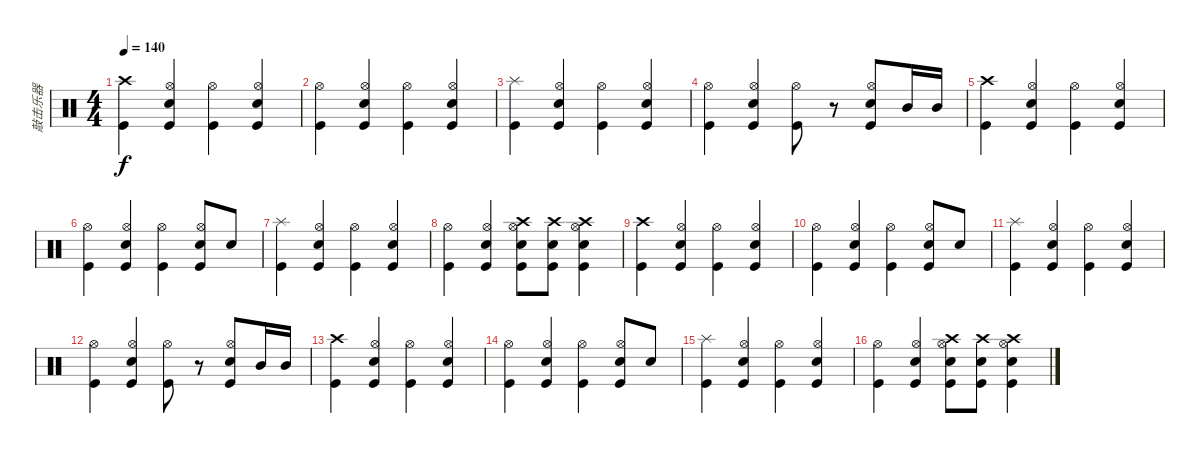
\track ("敲击乐器" "敲击乐器") {instrument percussion}
\staff {score}
\articulation defaults
\ts (4 4)
\tempo 140
\clef neutral
\ks c
("Crash high (hit)" "Kick (hit)").4{dy f} ("Hi-Hat (open)" "Electric Snare (hit)" "Kick (hit)").4 ("Hi-Hat (open)" "Kick (hit)").4 ("Hi-Hat (open)" "Electric Snare (hit)" "Kick (hit)").4 |
("Hi-Hat (open)" "Kick (hit)").4 ("Hi-Hat (open)" "Electric Snare (hit)" "Kick (hit)").4 ("Hi-Hat (open)" "Kick (hit)").4 ("Hi-Hat (open)" "Electric Snare (hit)" "Kick (hit)").4 |
("Splash (hit)" "Kick (hit)").4 ("Hi-Hat (open)" "Electric Snare (hit)" "Kick (hit)").4 ("Hi-Hat (open)" "Kick (hit)").4 ("Hi-Hat (open)" "Electric Snare (hit)" "Kick (hit)").4 |
("Hi-Hat (open)" "Kick (hit)").4 ("Hi-Hat (open)" "Electric Snare (hit)" "Kick (hit)").4 ("Hi-Hat (open)" "Kick (hit)").8 r.8 ("Hi-Hat (open)" "Electric Snare (hit)" "Kick (hit)").8 "Mid Tom (hit)".16 "Mid Tom (hit)".16 |
("Crash high (hit)" "Kick (hit)").4 ("Hi-Hat (open)" "Electric Snare (hit)" "Kick (hit)").4 ("Hi-Hat (open)" "Kick (hit)").4 ("Hi-Hat (open)" "Electric Snare (hit)" "Kick (hit)").4 |
("Hi-Hat (open)" "Kick (hit)").4 ("Hi-Hat (open)" "Electric Snare (hit)" "Kick (hit)").4 ("Hi-Hat (open)" "Kick (hit)").4 ("Hi-Hat (open)" "Electric Snare (hit)" "Kick (hit)").8 "Electric Snare (hit)".8 |
("Splash (hit)" "Kick (hit)").4 ("Hi-Hat (open)" "Electric Snare (hit)" "Kick (hit)").4 ("Hi-Hat (open)" "Kick (hit)").4 ("Hi-Hat (open)" "Electric Snare (hit)" "Kick (hit)").4 |
("Hi-Hat (open)" "Kick (hit)").4 ("Hi-Hat (open)" "Electric Snare (hit)" "Kick (hit)").4 ("Crash high (hit)" "Hi-Hat (open)" "Electric Snare (hit)" "Kick (hit)").8 ("Crash high (hit)" "Electric Snare (hit)" "Kick (hit)").8 ("Crash high (hit)" "Hi-Hat (open)" "Electric Snare (hit)" "Kick (hit)").4 |
("Crash high (hit)" "Kick (hit)").4 ("Hi-Hat (open)" "Electric Snare (hit)" "Kick (hit)").4 ("Hi-Hat (open)" "Kick (hit)").4 ("Hi-Hat (open)" "Electric Snare (hit)" "Kick (hit)").4 |
("Hi-Hat (open)" "Kick (hit)").4 ("Hi-Hat (open)" "Electric Snare (hit)" "Kick (hit)").4 ("Hi-Hat (open)" "Kick (hit)").4 ("Hi-Hat (open)" "Electric Snare (hit)" "Kick (hit)").8 "Electric Snare (hit)".8 |
("Splash (hit)" "Kick (hit)").4 ("Hi-Hat (open)" "Electric Snare (hit)" "Kick (hit)").4 ("Hi-Hat (open)" "Kick (hit)").4 ("Hi-Hat (open)" "Electric Snare (hit)" "Kick (hit)").4 |
("Hi-Hat (open)" "Kick (hit)").4 ("Hi-Hat (open)" "Electric Snare (hit)" "Kick (hit)").4 ("Hi-Hat (open)" "Kick (hit)").8 r.8 ("Hi-Hat (open)" "Electric Snare (hit)" "Kick (hit)").8 "Mid Tom (hit)".16 "Mid Tom (hit)".16 |
("Crash high (hit)" "Kick (hit)").4 ("Hi-Hat (open)" "Electric Snare (hit)" "Kick (hit)").4 ("Hi-Hat (open)" "Kick (hit)").4 ("Hi-Hat (open)" "Electric Snare (hit)" "Kick (hit)").4 |
("Hi-Hat (open)" "Kick (hit)").4 ("Hi-Hat (open)" "Electric Snare (hit)" "Kick (hit)").4 ("Hi-Hat (open)" "Kick (hit)").4 ("Hi-Hat (open)" "Electric Snare (hit)" "Kick (hit)").8 "Electric Snare (hit)".8 |
("Splash (hit)" "Kick (hit)").4 ("Hi-Hat (open)" "Electric Snare (hit)" "Kick (hit)").4 ("Hi-Hat (open)" "Kick (hit)").4 ("Hi-Hat (open)" "Electric Snare (hit)" "Kick (hit)").4 |
("Hi-Hat (open)" "Kick (hit)").4 ("Hi-Hat (open)" "Electric Snare (hit)" "Kick (hit)").4 ("Crash high (hit)" "Hi-Hat (open)" "Electric Snare (hit)" "Kick (hit)").8 ("Crash high (hit)" "Electric Snare (hit)" "Kick (hit)").8 ("Crash high (hit)" "Hi-Hat (open)" "Electric Snare (hit)" "Kick (hit)").4
